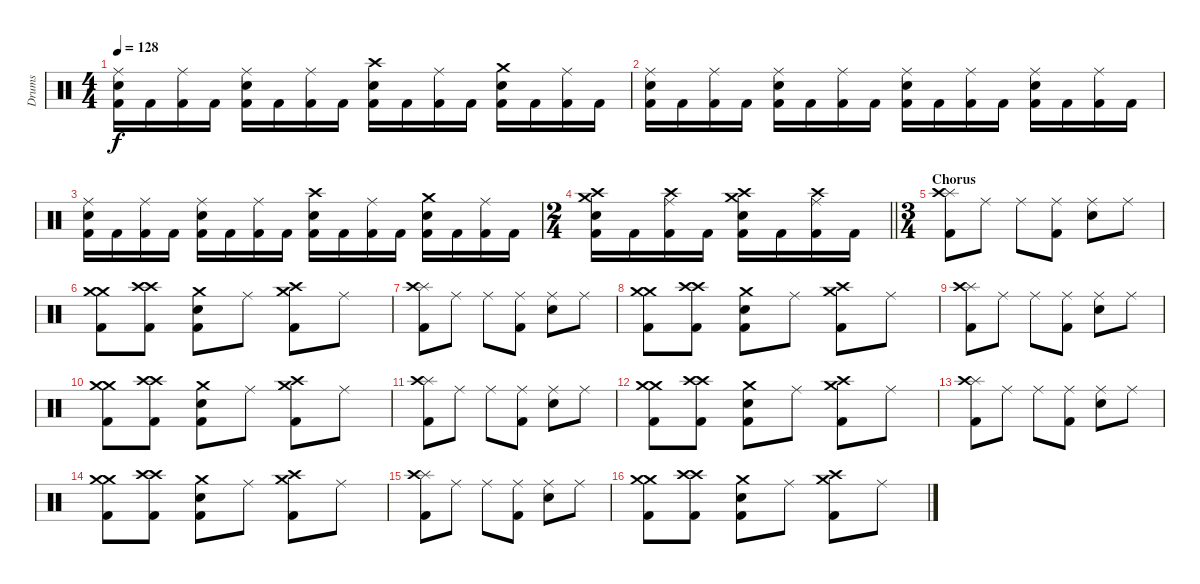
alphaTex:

\track ("Drums" "Drums") {instrument percussion}
\staff {score}
\articulation defaults
\ts (4 4)
\tempo 128
\clef neutral
\ks c
("Ride (middle)" "Snare (hit) 2" "Kick (hit) 2").16{dy f} "Kick (hit) 2".16 ("Ride (middle)" "Kick (hit) 2").16 "Kick (hit) 2".16 ("Ride (middle)" "Snare (hit) 2" "Kick (hit) 2").16 "Kick (hit) 2".16 ("Ride (middle)" "Kick (hit) 2").16 "Kick (hit) 2".16 ("Crash high (hit)" "Snare (hit) 2" "Kick (hit) 2").16 "Kick (hit) 2".16 ("Ride (middle)" "Kick (hit) 2").16 "Kick (hit) 2".16 ("Crash medium (hit)" "Snare (hit) 2" "Kick (hit) 2").16 "Kick (hit) 2".16 ("Ride (middle)" "Kick (hit) 2").16 "Kick (hit) 2".16 |
("Ride (middle)" "Snare (hit) 2" "Kick (hit) 2").16 "Kick (hit) 2".16 ("Ride (middle)" "Kick (hit) 2").16 "Kick (hit) 2".16 ("Ride (middle)" "Snare (hit) 2" "Kick (hit) 2").16 "Kick (hit) 2".16 ("Ride (middle)" "Kick (hit) 2").16 "Kick (hit) 2".16 ("Ride (middle)" "Snare (hit) 2" "Kick (hit) 2").16 "Kick (hit) 2".16 ("Ride (middle)" "Kick (hit) 2").16 "Kick (hit) 2".16 ("Ride (middle)" "Snare (hit) 2" "Kick (hit) 2").16 "Kick (hit) 2".16 ("Ride (middle)" "Kick (hit) 2").16 "Kick (hit) 2".16 |
("Ride (middle)" "Snare (hit) 2" "Kick (hit) 2").16 "Kick (hit) 2".16 ("Ride (middle)" "Kick (hit) 2").16 "Kick (hit) 2".16 ("Ride (middle)" "Snare (hit) 2" "Kick (hit) 2").16 "Kick (hit) 2".16 ("Ride (middle)" "Kick (hit) 2").16 "Kick (hit) 2".16 ("Crash high (hit)" "Snare (hit) 2" "Kick (hit) 2").16 "Kick (hit) 2".16 ("Ride (middle)" "Kick (hit) 2").16 "Kick (hit) 2".16 ("Crash medium (hit)" "Snare (hit) 2" "Kick (hit) 2").16 "Kick (hit) 2".16 ("Ride (middle)" "Kick (hit) 2").16 "Kick (hit) 2".16 |
\ts (2 4)
\barLineRight lightlight
("Crash high (hit)" "Crash medium (hit)" "Snare (hit) 2" "Kick (hit) 2").16 "Kick (hit) 2".16 ("Ride (middle)" "Crash high (hit)" "Kick (hit) 2").16 "Kick (hit) 2".16 ("Crash medium (hit)" "Crash high (hit)" "Snare (hit) 2" "Kick (hit) 2").16 "Kick (hit) 2".16 ("Ride (middle)" "Crash high (hit)" "Kick (hit) 2").16 "Kick (hit) 2".16 |
\ts (3 4)
\section ("" "Chorus")
("Splash (hit)" "Crash high (hit)" "Kick (hit) 2").8 "Ride (middle)".8 "Ride (middle)".8 ("Ride (middle)" "Kick (hit) 2").8 ("Ride (middle)" "Snare (hit) 2").8 "Ride (middle)".8 |
("Crash medium (hit)" "Crash medium (hit)" "Kick (hit) 2").8 ("Crash high (hit)" "Crash high (hit)" "Kick (hit) 2").8 ("Crash medium (hit)" "Snare (hit) 2" "Kick (hit) 2").8 "Ride (middle)".8 ("Crash medium (hit)" "Crash high (hit)" "Kick (hit) 2").8 "Ride (middle)".8 |
("Splash (hit)" "Crash high (hit)" "Kick (hit) 2").8 "Ride (middle)".8 "Ride (middle)".8 ("Ride (middle)" "Kick (hit) 2").8 ("Ride (middle)" "Snare (hit) 2").8 "Ride (middle)".8 |
("Crash medium (hit)" "Crash medium (hit)" "Kick (hit) 2").8 ("Crash high (hit)" "Crash high (hit)" "Kick (hit) 2").8 ("Crash medium (hit)" "Snare (hit) 2" "Kick (hit) 2").8 "Ride (middle)".8 ("Crash medium (hit)" "Crash high (hit)" "Kick (hit) 2").8 "Ride (middle)".8 |
("Splash (hit)" "Crash high (hit)" "Kick (hit) 2").8 "Ride (middle)".8 "Ride (middle)".8 ("Ride (middle)" "Kick (hit) 2").8 ("Ride (middle)" "Snare (hit) 2").8 "Ride (middle)".8 |
("Crash medium (hit)" "Crash medium (hit)" "Kick (hit) 2").8 ("Crash high (hit)" "Crash high (hit)" "Kick (hit) 2").8 ("Crash medium (hit)" "Snare (hit) 2" "Kick (hit) 2").8 "Ride (middle)".8 ("Crash medium (hit)" "Crash high (hit)" "Kick (hit) 2").8 "Ride (middle)".8 |
("Splash (hit)" "Crash high (hit)" "Kick (hit) 2").8 "Ride (middle)".8 "Ride (middle)".8 ("Ride (middle)" "Kick (hit) 2").8 ("Ride (middle)" "Snare (hit) 2").8 "Ride (middle)".8 |
("Crash medium (hit)" "Crash medium (hit)" "Kick (hit) 2").8 ("Crash high (hit)" "Crash high (hit)" "Kick (hit) 2").8 ("Crash medium (hit)" "Snare (hit) 2" "Kick (hit) 2").8 "Ride (middle)".8 ("Crash medium (hit)" "Crash high (hit)" "Kick (hit) 2").8 "Ride (middle)".8 |
("Splash (hit)" "Crash high (hit)" "Kick (hit) 2").8 "Ride (middle)".8 "Ride (middle)".8 ("Ride (middle)" "Kick (hit) 2").8 ("Ride (middle)" "Snare (hit) 2").8 "Ride (middle)".8 |
("Crash medium (hit)" "Crash medium (hit)" "Kick (hit) 2").8 ("Crash high (hit)" "Crash high (hit)" "Kick (hit) 2").8 ("Crash medium (hit)" "Snare (hit) 2" "Kick (hit) 2").8 "Ride (middle)".8 ("Crash medium (hit)" "Crash high (hit)" "Kick (hit) 2").8 "Ride (middle)".8 |
("Splash (hit)" "Crash high (hit)" "Kick (hit) 2").8 "Ride (middle)".8 "Ride (middle)".8 ("Ride (middle)" "Kick (hit) 2").8 ("Ride (middle)" "Snare (hit) 2").8 "Ride (middle)".8 |
("Crash medium (hit)" "Crash medium (hit)" "Kick (hit) 2").8 ("Crash high (hit)" "Crash high (hit)" "Kick (hit) 2").8 ("Crash medium (hit)" "Snare (hit) 2" "Kick (hit) 2").8 "Ride (middle)".8 ("Crash medium (hit)" "Crash high (hit)" "Kick (hit) 2").8 "Ride (middle)".8
